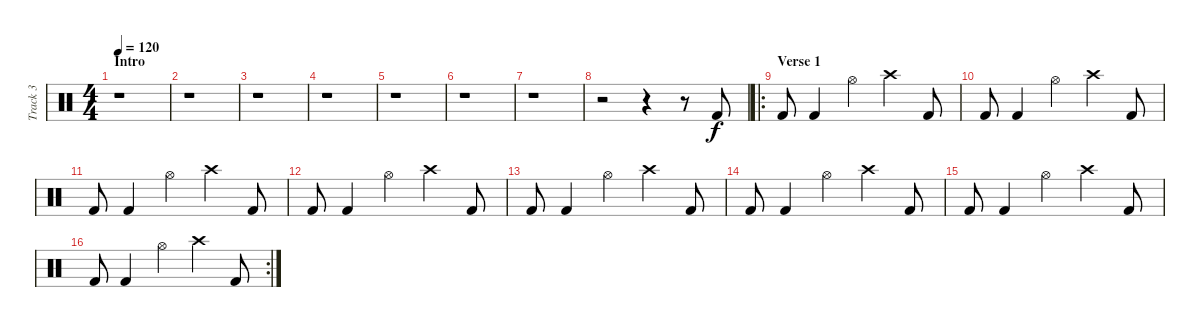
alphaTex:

\track ("Track 3" "Track 3") {instrument percussion}
\staff {score}
\articulation defaults
\ts (4 4)
\section ("" "Intro")
\tempo 120
\clef neutral
\ks c
r.1{dy f} |
r.1 |
r.1 |
r.1 |
r.1 |
r.1 |
r.1 |
r.2 r.4 r.8 "Kick (hit) 2".8 |
\ro
\section ("" "Verse 1")
"Kick (hit) 2".8 "Kick (hit) 2".4 "Hi-Hat (open)".4 "Crash high (hit)".4 "Kick (hit) 2".8 |
"Kick (hit) 2".8 "Kick (hit) 2".4 "Hi-Hat (open)".4 "Crash high (hit)".4 "Kick (hit) 2".8 |
"Kick (hit) 2".8 "Kick (hit) 2".4 "Hi-Hat (open)".4 "Crash high (hit)".4 "Kick (hit) 2".8 |
"Kick (hit) 2".8 "Kick (hit) 2".4 "Hi-Hat (open)".4 "Crash high (hit)".4 "Kick (hit) 2".8 |
"Kick (hit) 2".8 "Kick (hit) 2".4 "Hi-Hat (open)".4 "Crash high (hit)".4 "Kick (hit) 2".8 |
"Kick (hit) 2".8 "Kick (hit) 2".4 "Hi-Hat (open)".4 "Crash high (hit)".4 "Kick (hit) 2".8 |
"Kick (hit) 2".8 "Kick (hit) 2".4 "Hi-Hat (open)".4 "Crash high (hit)".4 "Kick (hit) 2".8 |
\rc 2 "Kick (hit) 2".8 "Kick (hit) 2".4 "Hi-Hat (open)".4 "Crash high (hit)".4 "Kick (hit) 2".8
